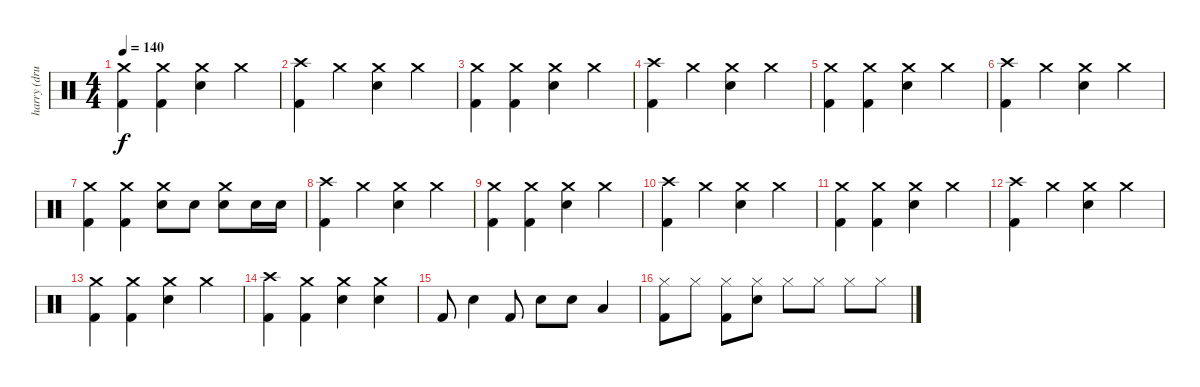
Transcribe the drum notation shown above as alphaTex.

\track ("harry (drum)" "harry (dru") {instrument percussion}
\staff {score}
\articulation defaults
\ts (4 4)
\tempo 140
\clef neutral
\ks c
("Kick (hit) 2" "Crash medium (hit)").4{dy f} ("Kick (hit) 2" "Crash medium (hit)").4 ("Snare (hit) 2" "Crash medium (hit)").4 "Crash medium (hit)".4 |
("Kick (hit) 2" "Crash high (hit)").4 "Crash medium (hit)".4 ("Snare (hit) 2" "Crash medium (hit)").4 "Crash medium (hit)".4 |
("Kick (hit) 2" "Crash medium (hit)").4 ("Kick (hit) 2" "Crash medium (hit)").4 ("Snare (hit) 2" "Crash medium (hit)").4 "Crash medium (hit)".4 |
("Kick (hit) 2" "Crash high (hit)").4 "Crash medium (hit)".4 ("Snare (hit) 2" "Crash medium (hit)").4 "Crash medium (hit)".4 |
("Kick (hit) 2" "Crash medium (hit)").4 ("Kick (hit) 2" "Crash medium (hit)").4 ("Snare (hit) 2" "Crash medium (hit)").4 "Crash medium (hit)".4 |
("Kick (hit) 2" "Crash high (hit)").4 "Crash medium (hit)".4 ("Snare (hit) 2" "Crash medium (hit)").4 "Crash medium (hit)".4 |
("Kick (hit) 2" "Crash medium (hit)").4 ("Kick (hit) 2" "Crash medium (hit)").4 ("Snare (hit) 2" "Crash medium (hit)").8 "Snare (hit) 2".8 ("Snare (hit) 2" "Crash medium (hit)").8 "Snare (hit) 2".16 "Snare (hit) 2".16 |
("Kick (hit) 2" "Crash high (hit)").4 "Crash medium (hit)".4 ("Snare (hit) 2" "Crash medium (hit)").4 "Crash medium (hit)".4 |
("Kick (hit) 2" "Crash medium (hit)").4 ("Kick (hit) 2" "Crash medium (hit)").4 ("Snare (hit) 2" "Crash medium (hit)").4 "Crash medium (hit)".4 |
("Kick (hit) 2" "Crash high (hit)").4 "Crash medium (hit)".4 ("Snare (hit) 2" "Crash medium (hit)").4 "Crash medium (hit)".4 |
("Kick (hit) 2" "Crash medium (hit)").4 ("Kick (hit) 2" "Crash medium (hit)").4 ("Snare (hit) 2" "Crash medium (hit)").4 "Crash medium (hit)".4 |
("Kick (hit) 2" "Crash high (hit)").4 "Crash medium (hit)".4 ("Snare (hit) 2" "Crash medium (hit)").4 "Crash medium (hit)".4 |
("Kick (hit) 2" "Crash medium (hit)").4 ("Kick (hit) 2" "Crash medium (hit)").4 ("Snare (hit) 2" "Crash medium (hit)").4 "Crash medium (hit)".4 |
("Kick (hit) 2" "Crash high (hit)").4 ("Kick (hit) 2" "Crash medium (hit)").4 ("Snare (hit) 2" "Crash medium (hit)").4 ("Snare (hit) 2" "Crash medium (hit)").4 |
"Kick (hit) 2".8 "Snare (hit) 2".4 "Kick (hit) 2".8 "Snare (hit) 2".8 "Snare (hit) 2".8 "Low Floor Tom (hit)".4 |
("Hi-Hat (closed)" "Kick (hit) 2").8 "Hi-Hat (closed)".8 ("Hi-Hat (closed)" "Kick (hit) 2").8 ("Hi-Hat (closed)" "Snare (hit) 2").8 "Hi-Hat (closed)".8 "Hi-Hat (closed)".8 "Hi-Hat (closed)".8 "Hi-Hat (closed)".8
